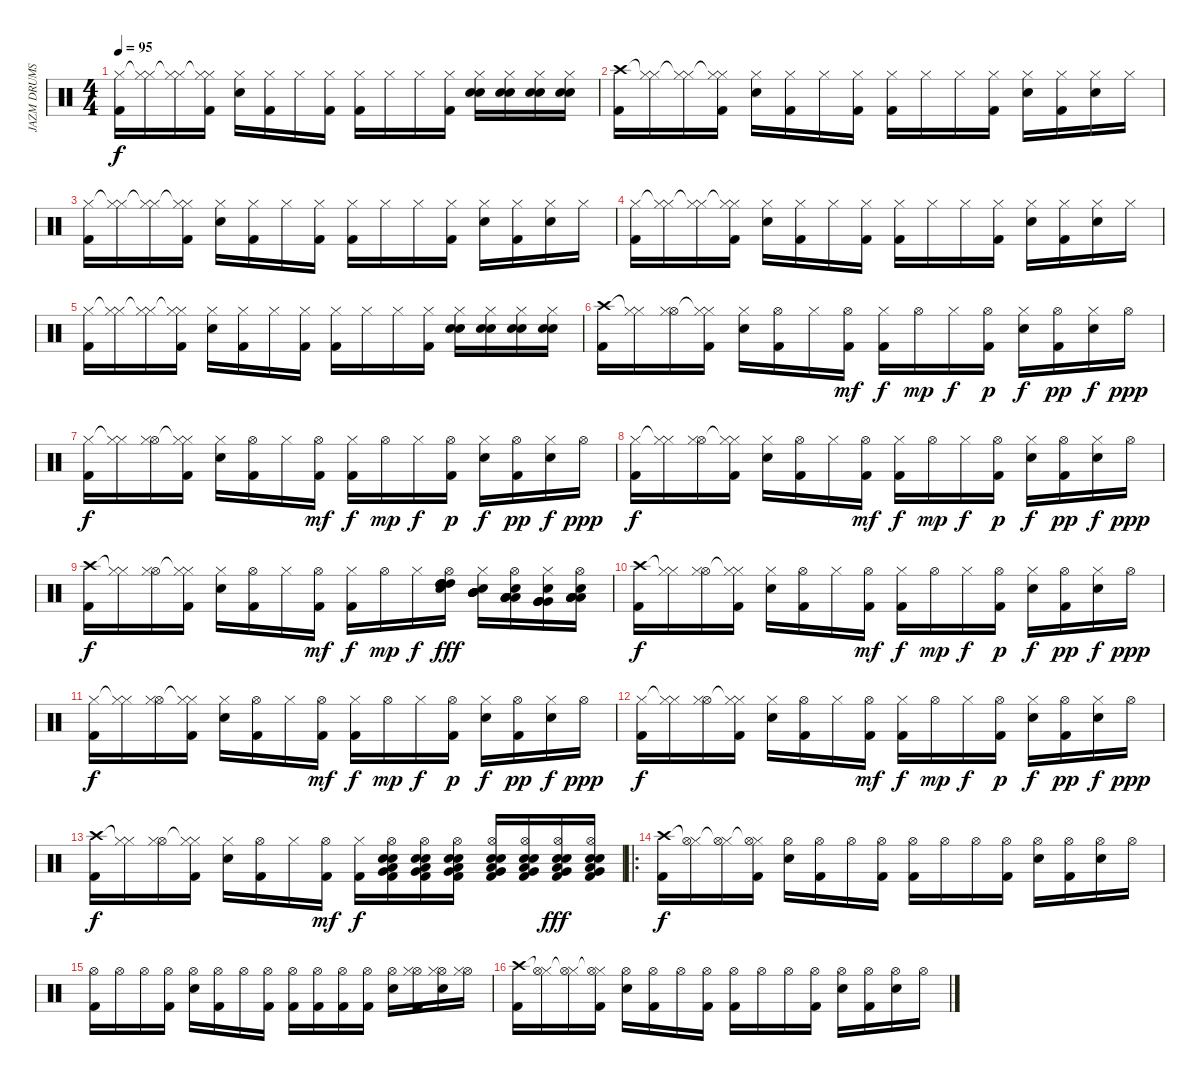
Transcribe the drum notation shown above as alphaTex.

\track ("JAZM DRUMS" "JAZM DRUMS") {instrument percussion}
\staff {score}
\articulation defaults
\ts (4 4)
\tempo 95
\clef neutral
\ks c
("Hi-Hat (closed)" "Kick (hit) 2").16{dy f} ("Hi-Hat (closed)"{t} "Hi-Hat (closed)").16 ("Hi-Hat (closed)"{t} "Hi-Hat (closed)").16 ("Hi-Hat (closed)"{t} "Hi-Hat (closed)" "Kick (hit) 2").16 ("Hi-Hat (closed)" "Electric Snare (hit)").16 ("Hi-Hat (closed)" "Kick (hit) 2").16 "Hi-Hat (closed)".16 ("Hi-Hat (closed)" "Kick (hit) 2").16 ("Hi-Hat (closed)" "Kick (hit) 2").16 "Hi-Hat (closed)".16 "Hi-Hat (closed)".16 ("Hi-Hat (closed)" "Kick (hit) 2").16 ("Hi-Hat (closed)" "Electric Snare (hit)" "Electric Snare (hit)").16 ("Hi-Hat (closed)" "Electric Snare (hit)" "Electric Snare (hit)").16 ("Hi-Hat (closed)" "Electric Snare (hit)" "Electric Snare (hit)").16 ("Hi-Hat (closed)" "Electric Snare (hit)" "Electric Snare (hit)").16 |
("Crash high (hit)" "Kick (hit) 2").16 ("Hi-Hat (closed)"{t} "Hi-Hat (closed)").16 ("Hi-Hat (closed)"{t} "Hi-Hat (closed)").16 ("Hi-Hat (closed)"{t} "Hi-Hat (closed)" "Kick (hit) 2").16 ("Hi-Hat (closed)" "Electric Snare (hit)").16 ("Hi-Hat (closed)" "Kick (hit) 2").16 "Hi-Hat (closed)".16 ("Hi-Hat (closed)" "Kick (hit) 2").16 ("Hi-Hat (closed)" "Kick (hit) 2").16 "Hi-Hat (closed)".16 "Hi-Hat (closed)".16 ("Hi-Hat (closed)" "Kick (hit) 2").16 ("Hi-Hat (closed)" "Electric Snare (hit)").16 ("Hi-Hat (closed)" "Kick (hit) 2").16 ("Hi-Hat (closed)" "Electric Snare (hit)").16 "Hi-Hat (closed)".16 |
("Hi-Hat (closed)" "Kick (hit) 2").16 ("Hi-Hat (closed)"{t} "Hi-Hat (closed)").16 ("Hi-Hat (closed)"{t} "Hi-Hat (closed)").16 ("Hi-Hat (closed)"{t} "Hi-Hat (closed)" "Kick (hit) 2").16 ("Hi-Hat (closed)" "Electric Snare (hit)").16 ("Hi-Hat (closed)" "Kick (hit) 2").16 "Hi-Hat (closed)".16 ("Hi-Hat (closed)" "Kick (hit) 2").16 ("Hi-Hat (closed)" "Kick (hit) 2").16 "Hi-Hat (closed)".16 "Hi-Hat (closed)".16 ("Hi-Hat (closed)" "Kick (hit) 2").16 ("Hi-Hat (closed)" "Electric Snare (hit)").16 ("Hi-Hat (closed)" "Kick (hit) 2").16 ("Hi-Hat (closed)" "Electric Snare (hit)").16 "Hi-Hat (closed)".16 |
("Hi-Hat (closed)" "Kick (hit) 2").16 ("Hi-Hat (closed)"{t} "Hi-Hat (closed)").16 ("Hi-Hat (closed)"{t} "Hi-Hat (closed)").16 ("Hi-Hat (closed)"{t} "Hi-Hat (closed)" "Kick (hit) 2").16 ("Hi-Hat (closed)" "Electric Snare (hit)").16 ("Hi-Hat (closed)" "Kick (hit) 2").16 "Hi-Hat (closed)".16 ("Hi-Hat (closed)" "Kick (hit) 2").16 ("Hi-Hat (closed)" "Kick (hit) 2").16 "Hi-Hat (closed)".16 "Hi-Hat (closed)".16 ("Hi-Hat (closed)" "Kick (hit) 2").16 ("Hi-Hat (closed)" "Electric Snare (hit)").16 ("Hi-Hat (closed)" "Kick (hit) 2").16 ("Hi-Hat (closed)" "Electric Snare (hit)").16 "Hi-Hat (closed)".16 |
("Hi-Hat (closed)" "Kick (hit) 2").16 ("Hi-Hat (closed)"{t} "Hi-Hat (closed)").16 ("Hi-Hat (closed)"{t} "Hi-Hat (closed)").16 ("Hi-Hat (closed)"{t} "Hi-Hat (closed)" "Kick (hit) 2").16 ("Hi-Hat (closed)" "Electric Snare (hit)").16 ("Hi-Hat (closed)" "Kick (hit) 2").16 "Hi-Hat (closed)".16 ("Hi-Hat (closed)" "Kick (hit) 2").16 ("Hi-Hat (closed)" "Kick (hit) 2").16 "Hi-Hat (closed)".16 "Hi-Hat (closed)".16 ("Hi-Hat (closed)" "Kick (hit) 2").16 ("Hi-Hat (closed)" "Electric Snare (hit)" "Electric Snare (hit)").16 ("Hi-Hat (closed)" "Electric Snare (hit)" "Electric Snare (hit)").16 ("Hi-Hat (closed)" "Electric Snare (hit)" "Electric Snare (hit)").16 ("Hi-Hat (closed)" "Electric Snare (hit)" "Electric Snare (hit)").16 |
("Crash high (hit)" "Kick (hit) 2").16 ("Hi-Hat (closed)"{t} "Hi-Hat (closed)").16 ("Hi-Hat (open)" "Hi-Hat (closed)").16 ("Hi-Hat (closed)"{t} "Hi-Hat (closed)" "Kick (hit) 2").16 ("Hi-Hat (closed)" "Electric Snare (hit)").16 ("Hi-Hat (open)" "Kick (hit) 2").16 "Hi-Hat (closed)".16 ("Hi-Hat (open)" "Kick (hit) 2").16{dy mf} ("Hi-Hat (closed)" "Kick (hit) 2").16{dy f} "Hi-Hat (open)".16{dy mp} "Hi-Hat (closed)".16{dy f} ("Hi-Hat (open)" "Kick (hit) 2").16{dy p} ("Hi-Hat (closed)" "Electric Snare (hit)").16{dy f} ("Hi-Hat (open)" "Kick (hit) 2").16{dy pp} ("Hi-Hat (closed)" "Electric Snare (hit)").16{dy f} "Hi-Hat (open)".16{dy ppp} |
("Hi-Hat (closed)" "Kick (hit) 2").16{dy f} ("Hi-Hat (closed)"{t} "Hi-Hat (closed)").16 ("Hi-Hat (open)" "Hi-Hat (closed)").16 ("Hi-Hat (closed)"{t} "Hi-Hat (closed)" "Kick (hit) 2").16 ("Hi-Hat (closed)" "Electric Snare (hit)").16 ("Hi-Hat (open)" "Kick (hit) 2").16 "Hi-Hat (closed)".16 ("Hi-Hat (open)" "Kick (hit) 2").16{dy mf} ("Hi-Hat (closed)" "Kick (hit) 2").16{dy f} "Hi-Hat (open)".16{dy mp} "Hi-Hat (closed)".16{dy f} ("Hi-Hat (open)" "Kick (hit) 2").16{dy p} ("Hi-Hat (closed)" "Electric Snare (hit)").16{dy f} ("Hi-Hat (open)" "Kick (hit) 2").16{dy pp} ("Hi-Hat (closed)" "Electric Snare (hit)").16{dy f} "Hi-Hat (open)".16{dy ppp} |
("Hi-Hat (closed)" "Kick (hit) 2").16{dy f} ("Hi-Hat (closed)"{t} "Hi-Hat (closed)").16 ("Hi-Hat (open)" "Hi-Hat (closed)").16 ("Hi-Hat (closed)"{t} "Hi-Hat (closed)" "Kick (hit) 2").16 ("Hi-Hat (closed)" "Electric Snare (hit)").16 ("Hi-Hat (open)" "Kick (hit) 2").16 "Hi-Hat (closed)".16 ("Hi-Hat (open)" "Kick (hit) 2").16{dy mf} ("Hi-Hat (closed)" "Kick (hit) 2").16{dy f} "Hi-Hat (open)".16{dy mp} "Hi-Hat (closed)".16{dy f} ("Hi-Hat (open)" "Kick (hit) 2").16{dy p} ("Hi-Hat (closed)" "Electric Snare (hit)").16{dy f} ("Hi-Hat (open)" "Kick (hit) 2").16{dy pp} ("Hi-Hat (closed)" "Electric Snare (hit)").16{dy f} "Hi-Hat (open)".16{dy ppp} |
("Crash high (hit)" "Kick (hit) 2").16{dy f} ("Hi-Hat (closed)"{t} "Hi-Hat (closed)").16 ("Hi-Hat (open)" "Hi-Hat (closed)").16 ("Hi-Hat (closed)"{t} "Hi-Hat (closed)" "Kick (hit) 2").16 ("Hi-Hat (closed)" "Electric Snare (hit)").16 ("Hi-Hat (open)" "Kick (hit) 2").16 "Hi-Hat (closed)".16 ("Hi-Hat (open)" "Kick (hit) 2").16{dy mf} ("Hi-Hat (closed)" "Kick (hit) 2").16{dy f} "Hi-Hat (open)".16{dy mp} "Hi-Hat (closed)".16{dy f} ("Hi-Hat (open)" "High Tom (hit)" "High Tom (hit)" "High Tom (hit)" "High Tom (hit)" "Electric Snare (hit)").16{dy fff} ("Hi-Hat (closed)" "Mid Tom (hit)" "Mid Tom (hit)" "Mid Tom (hit)" "Mid Tom (hit)" "Electric Snare (hit)").16 ("Hi-Hat (open)" "Low Tom (hit)" "Low Tom (hit)" "Low Tom (hit)" "Low Tom (hit)" "Electric Snare (hit)").16 ("Hi-Hat (closed)" "Very Low Tom (hit)" "Very Low Tom (hit)" "Very Low Tom (hit)" "Very Low Tom (hit)" "Electric Snare (hit)").16 ("Hi-Hat (open)" "Low Floor Tom (hit)" "Low Floor Tom (hit)" "Low Floor Tom (hit)" "Low Floor Tom (hit)" "Electric Snare (hit)").16 |
("Crash high (hit)" "Kick (hit) 2").16{dy f} ("Hi-Hat (closed)"{t} "Hi-Hat (closed)").16 ("Hi-Hat (open)" "Hi-Hat (closed)").16 ("Hi-Hat (closed)"{t} "Hi-Hat (closed)" "Kick (hit) 2").16 ("Hi-Hat (closed)" "Electric Snare (hit)").16 ("Hi-Hat (open)" "Kick (hit) 2").16 "Hi-Hat (closed)".16 ("Hi-Hat (open)" "Kick (hit) 2").16{dy mf} ("Hi-Hat (closed)" "Kick (hit) 2").16{dy f} "Hi-Hat (open)".16{dy mp} "Hi-Hat (closed)".16{dy f} ("Hi-Hat (open)" "Kick (hit) 2").16{dy p} ("Hi-Hat (closed)" "Electric Snare (hit)").16{dy f} ("Hi-Hat (open)" "Kick (hit) 2").16{dy pp} ("Hi-Hat (closed)" "Electric Snare (hit)").16{dy f} "Hi-Hat (open)".16{dy ppp} |
("Hi-Hat (closed)" "Kick (hit) 2").16{dy f} ("Hi-Hat (closed)"{t} "Hi-Hat (closed)").16 ("Hi-Hat (open)" "Hi-Hat (closed)").16 ("Hi-Hat (closed)"{t} "Hi-Hat (closed)" "Kick (hit) 2").16 ("Hi-Hat (closed)" "Electric Snare (hit)").16 ("Hi-Hat (open)" "Kick (hit) 2").16 "Hi-Hat (closed)".16 ("Hi-Hat (open)" "Kick (hit) 2").16{dy mf} ("Hi-Hat (closed)" "Kick (hit) 2").16{dy f} "Hi-Hat (open)".16{dy mp} "Hi-Hat (closed)".16{dy f} ("Hi-Hat (open)" "Kick (hit) 2").16{dy p} ("Hi-Hat (closed)" "Electric Snare (hit)").16{dy f} ("Hi-Hat (open)" "Kick (hit) 2").16{dy pp} ("Hi-Hat (closed)" "Electric Snare (hit)").16{dy f} "Hi-Hat (open)".16{dy ppp} |
("Hi-Hat (closed)" "Kick (hit) 2").16{dy f} ("Hi-Hat (closed)"{t} "Hi-Hat (closed)").16 ("Hi-Hat (open)" "Hi-Hat (closed)").16 ("Hi-Hat (closed)"{t} "Hi-Hat (closed)" "Kick (hit) 2").16 ("Hi-Hat (closed)" "Electric Snare (hit)").16 ("Hi-Hat (open)" "Kick (hit) 2").16 "Hi-Hat (closed)".16 ("Hi-Hat (open)" "Kick (hit) 2").16{dy mf} ("Hi-Hat (closed)" "Kick (hit) 2").16{dy f} "Hi-Hat (open)".16{dy mp} "Hi-Hat (closed)".16{dy f} ("Hi-Hat (open)" "Kick (hit) 2").16{dy p} ("Hi-Hat (closed)" "Electric Snare (hit)").16{dy f} ("Hi-Hat (open)" "Kick (hit) 2").16{dy pp} ("Hi-Hat (closed)" "Electric Snare (hit)").16{dy f} "Hi-Hat (open)".16{dy ppp} |
("Crash high (hit)" "Kick (hit) 2").16{dy f} ("Hi-Hat (closed)"{t} "Hi-Hat (closed)").16 ("Hi-Hat (open)" "Hi-Hat (closed)").16 ("Hi-Hat (closed)"{t} "Hi-Hat (closed)" "Kick (hit) 2").16 ("Hi-Hat (closed)" "Electric Snare (hit)").16 ("Hi-Hat (open)" "Kick (hit) 2").16 "Hi-Hat (closed)".16 ("Hi-Hat (open)" "Kick (hit) 2").16{dy mf} ("Hi-Hat (closed)" "Kick (hit) 2").16{dy f} ("Hi-Hat (open)" "Very Low Tom (hit)" "Low Floor Tom (hit)" "Kick (hit) 2" "Electric Snare (hit)" "Electric Snare (hit)").16 ("Hi-Hat (open)" "Very Low Tom (hit)" "Low Floor Tom (hit)" "Kick (hit) 2" "Electric Snare (hit)" "Electric Snare (hit)").16 ("Hi-Hat (open)" "Very Low Tom (hit)" "Low Floor Tom (hit)" "Kick (hit) 2" "Electric Snare (hit)" "Electric Snare (hit)").16 ("Hi-Hat (open)" "Very Low Tom (hit)" "Low Floor Tom (hit)" "Kick (hit) 2" "Electric Snare (hit)" "Electric Snare (hit)").16 ("Hi-Hat (open)" "Very Low Tom (hit)" "Low Floor Tom (hit)" "Kick (hit) 2" "Electric Snare (hit)" "Electric Snare (hit)").16 ("Hi-Hat (open)" "Very Low Tom (hit)" "Low Floor Tom (hit)" "Kick (hit) 2" "Electric Snare (hit)" "Electric Snare (hit)").16{dy fff} ("Hi-Hat (open)" "Very Low Tom (hit)" "Low Floor Tom (hit)" "Kick (hit) 2" "Electric Snare (hit)" "Electric Snare (hit)").16 |
\ro
("Crash high (hit)" "Kick (hit) 2").16{dy f} ("Hi-Hat (closed)"{t} "Hi-Hat (open)").16 ("Hi-Hat (closed)"{t} "Hi-Hat (open)").16 ("Hi-Hat (closed)"{t} "Hi-Hat (open)" "Kick (hit) 2").16 ("Hi-Hat (open)" "Electric Snare (hit)").16 ("Hi-Hat (open)" "Kick (hit) 2").16 "Hi-Hat (open)".16 ("Hi-Hat (open)" "Kick (hit) 2").16 ("Hi-Hat (open)" "Kick (hit) 2").16 "Hi-Hat (open)".16 "Hi-Hat (open)".16 ("Hi-Hat (open)" "Kick (hit) 2").16 ("Hi-Hat (open)" "Electric Snare (hit)").16 ("Hi-Hat (open)" "Kick (hit) 2").16 ("Hi-Hat (open)" "Electric Snare (hit)").16 "Hi-Hat (open)".16 |
("Hi-Hat (open)" "Kick (hit) 2").16 "Hi-Hat (open)".16 "Hi-Hat (open)".16 ("Hi-Hat (open)" "Kick (hit) 2").16 ("Hi-Hat (open)" "Electric Snare (hit)").16 ("Hi-Hat (open)" "Kick (hit) 2").16 "Hi-Hat (open)".16 ("Hi-Hat (open)" "Kick (hit) 2").16 ("Hi-Hat (open)" "Kick (hit) 2").16 ("Hi-Hat (open)" "Kick (hit) 2").16 ("Hi-Hat (open)" "Kick (hit) 2").16 ("Hi-Hat (open)" "Kick (hit) 2").16 ("Hi-Hat (open)" "Electric Snare (hit)").16 ("Hi-Hat (open)" "Hi-Hat (closed)" "Kick (hit) 2").16 ("Hi-Hat (open)" "Hi-Hat (closed)" "Electric Snare (hit)").16 ("Hi-Hat (open)" "Hi-Hat (closed)").16 |
("Crash high (hit)" "Kick (hit) 2").16 ("Hi-Hat (closed)"{t} "Hi-Hat (open)").16 ("Hi-Hat (closed)"{t} "Hi-Hat (open)").16 ("Hi-Hat (closed)"{t} "Hi-Hat (open)" "Kick (hit) 2").16 ("Hi-Hat (open)" "Electric Snare (hit)").16 ("Hi-Hat (open)" "Kick (hit) 2").16 "Hi-Hat (open)".16 ("Hi-Hat (open)" "Kick (hit) 2").16 ("Hi-Hat (open)" "Kick (hit) 2").16 "Hi-Hat (open)".16 "Hi-Hat (open)".16 ("Hi-Hat (open)" "Kick (hit) 2").16 ("Hi-Hat (open)" "Electric Snare (hit)").16 ("Hi-Hat (open)" "Kick (hit) 2").16 ("Hi-Hat (open)" "Electric Snare (hit)").16 "Hi-Hat (open)".16
